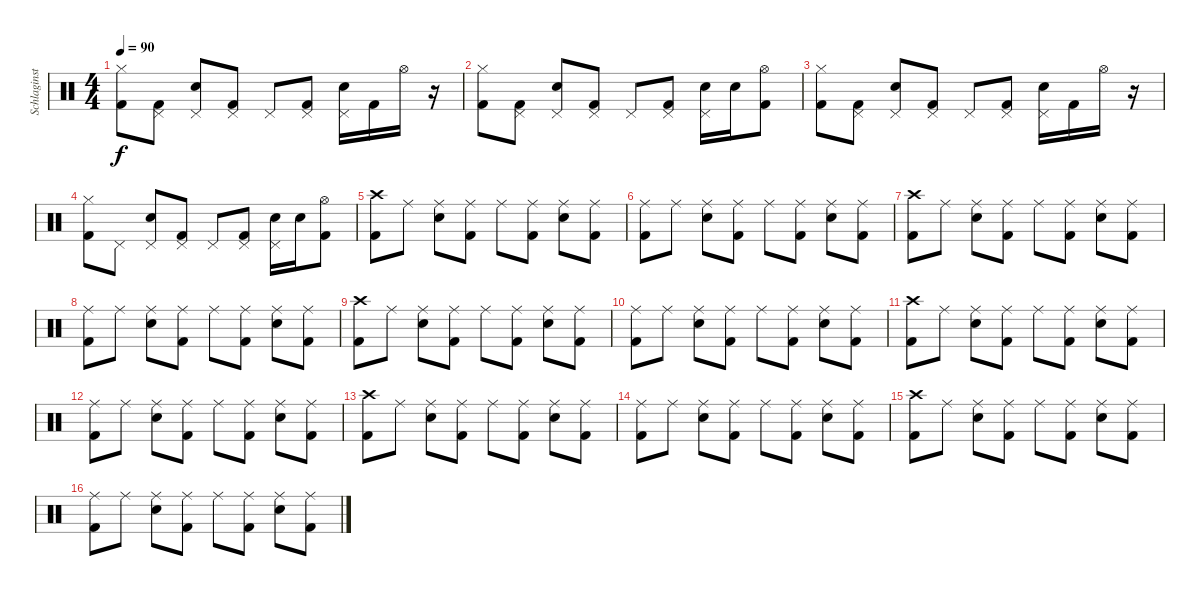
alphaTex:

\track ("Schlaginstrumente - Auswahl" "Schlaginst") {instrument percussion}
\staff {score}
\articulation defaults
\ts (4 4)
\tempo 90
\clef neutral
\ks c
("Hi-Hat (closed)" "Kick (hit) 2").8{dy f} ("Pedal Hi-Hat (hit)" "Kick (hit) 2").8 ("Pedal Hi-Hat (hit)" "Snare (hit) 2").8 ("Pedal Hi-Hat (hit)" "Kick (hit) 2").8 "Pedal Hi-Hat (hit)".8 ("Pedal Hi-Hat (hit)" "Kick (hit) 2").8 ("Pedal Hi-Hat (hit)" "Snare (hit) 2").16 "Kick (hit) 2".16 "Hi-Hat (open)".16 r.16 |
("Hi-Hat (closed)" "Kick (hit) 2").8 ("Pedal Hi-Hat (hit)" "Kick (hit) 2").8 ("Pedal Hi-Hat (hit)" "Snare (hit) 2").8 ("Pedal Hi-Hat (hit)" "Kick (hit) 2").8 "Pedal Hi-Hat (hit)".8 ("Pedal Hi-Hat (hit)" "Kick (hit) 2").8 ("Pedal Hi-Hat (hit)" "Snare (hit) 2").16 "Snare (hit) 2".16 ("Hi-Hat (open)" "Kick (hit) 2").8 |
("Hi-Hat (closed)" "Kick (hit) 2").8 ("Pedal Hi-Hat (hit)" "Kick (hit) 2").8 ("Pedal Hi-Hat (hit)" "Snare (hit) 2").8 ("Pedal Hi-Hat (hit)" "Kick (hit) 2").8 "Pedal Hi-Hat (hit)".8 ("Pedal Hi-Hat (hit)" "Kick (hit) 2").8 ("Pedal Hi-Hat (hit)" "Snare (hit) 2").16 "Kick (hit) 2".16 "Hi-Hat (open)".16 r.16 |
("Hi-Hat (closed)" "Kick (hit) 2").8 "Pedal Hi-Hat (hit)".8 ("Pedal Hi-Hat (hit)" "Snare (hit) 2").8 ("Pedal Hi-Hat (hit)" "Kick (hit) 2").8 "Pedal Hi-Hat (hit)".8 ("Pedal Hi-Hat (hit)" "Kick (hit) 2").8 ("Pedal Hi-Hat (hit)" "Snare (hit) 2").16 "Snare (hit) 2".16 ("Hi-Hat (open)" "Kick (hit) 2").8 |
("Crash high (hit)" "Kick (hit) 2").8 "Ride (middle)".8 ("Ride (middle)" "Snare (hit) 2").8 ("Ride (middle)" "Kick (hit) 2").8 "Ride (middle)".8 ("Ride (middle)" "Kick (hit) 2").8 ("Ride (middle)" "Snare (hit) 2").8 ("Ride (middle)" "Kick (hit) 2").8 |
("Ride (middle)" "Kick (hit) 2").8 "Ride (middle)".8 ("Ride (middle)" "Snare (hit) 2").8 ("Ride (middle)" "Kick (hit) 2").8 "Ride (middle)".8 ("Ride (middle)" "Kick (hit) 2").8 ("Ride (middle)" "Snare (hit) 2").8 ("Ride (middle)" "Kick (hit) 2").8 |
("Crash high (hit)" "Kick (hit) 2").8 "Ride (middle)".8 ("Ride (middle)" "Snare (hit) 2").8 ("Ride (middle)" "Kick (hit) 2").8 "Ride (middle)".8 ("Ride (middle)" "Kick (hit) 2").8 ("Ride (middle)" "Snare (hit) 2").8 ("Ride (middle)" "Kick (hit) 2").8 |
("Ride (middle)" "Kick (hit) 2").8 "Ride (middle)".8 ("Ride (middle)" "Snare (hit) 2").8 ("Ride (middle)" "Kick (hit) 2").8 "Ride (middle)".8 ("Ride (middle)" "Kick (hit) 2").8 ("Ride (middle)" "Snare (hit) 2").8 ("Ride (middle)" "Kick (hit) 2").8 |
("Crash high (hit)" "Kick (hit) 2").8 "Ride (middle)".8 ("Ride (middle)" "Snare (hit) 2").8 ("Ride (middle)" "Kick (hit) 2").8 "Ride (middle)".8 ("Ride (middle)" "Kick (hit) 2").8 ("Ride (middle)" "Snare (hit) 2").8 ("Ride (middle)" "Kick (hit) 2").8 |
("Ride (middle)" "Kick (hit) 2").8 "Ride (middle)".8 ("Ride (middle)" "Snare (hit) 2").8 ("Ride (middle)" "Kick (hit) 2").8 "Ride (middle)".8 ("Ride (middle)" "Kick (hit) 2").8 ("Ride (middle)" "Snare (hit) 2").8 ("Ride (middle)" "Kick (hit) 2").8 |
("Crash high (hit)" "Kick (hit) 2").8 "Ride (middle)".8 ("Ride (middle)" "Snare (hit) 2").8 ("Ride (middle)" "Kick (hit) 2").8 "Ride (middle)".8 ("Ride (middle)" "Kick (hit) 2").8 ("Ride (middle)" "Snare (hit) 2").8 ("Ride (middle)" "Kick (hit) 2").8 |
("Ride (middle)" "Kick (hit) 2").8 "Ride (middle)".8 ("Ride (middle)" "Snare (hit) 2").8 ("Ride (middle)" "Kick (hit) 2").8 "Ride (middle)".8 ("Ride (middle)" "Kick (hit) 2").8 ("Ride (middle)" "Snare (hit) 2").8 ("Ride (middle)" "Kick (hit) 2").8 |
("Crash high (hit)" "Kick (hit) 2").8 "Ride (middle)".8 ("Ride (middle)" "Snare (hit) 2").8 ("Ride (middle)" "Kick (hit) 2").8 "Ride (middle)".8 ("Ride (middle)" "Kick (hit) 2").8 ("Ride (middle)" "Snare (hit) 2").8 ("Ride (middle)" "Kick (hit) 2").8 |
("Ride (middle)" "Kick (hit) 2").8 "Ride (middle)".8 ("Ride (middle)" "Snare (hit) 2").8 ("Ride (middle)" "Kick (hit) 2").8 "Ride (middle)".8 ("Ride (middle)" "Kick (hit) 2").8 ("Ride (middle)" "Snare (hit) 2").8 ("Ride (middle)" "Kick (hit) 2").8 |
("Crash high (hit)" "Kick (hit) 2").8 "Ride (middle)".8 ("Ride (middle)" "Snare (hit) 2").8 ("Ride (middle)" "Kick (hit) 2").8 "Ride (middle)".8 ("Ride (middle)" "Kick (hit) 2").8 ("Ride (middle)" "Snare (hit) 2").8 ("Ride (middle)" "Kick (hit) 2").8 |
("Ride (middle)" "Kick (hit) 2").8 "Ride (middle)".8 ("Ride (middle)" "Snare (hit) 2").8 ("Ride (middle)" "Kick (hit) 2").8 "Ride (middle)".8 ("Ride (middle)" "Kick (hit) 2").8 ("Ride (middle)" "Snare (hit) 2").8 ("Ride (middle)" "Kick (hit) 2").8
